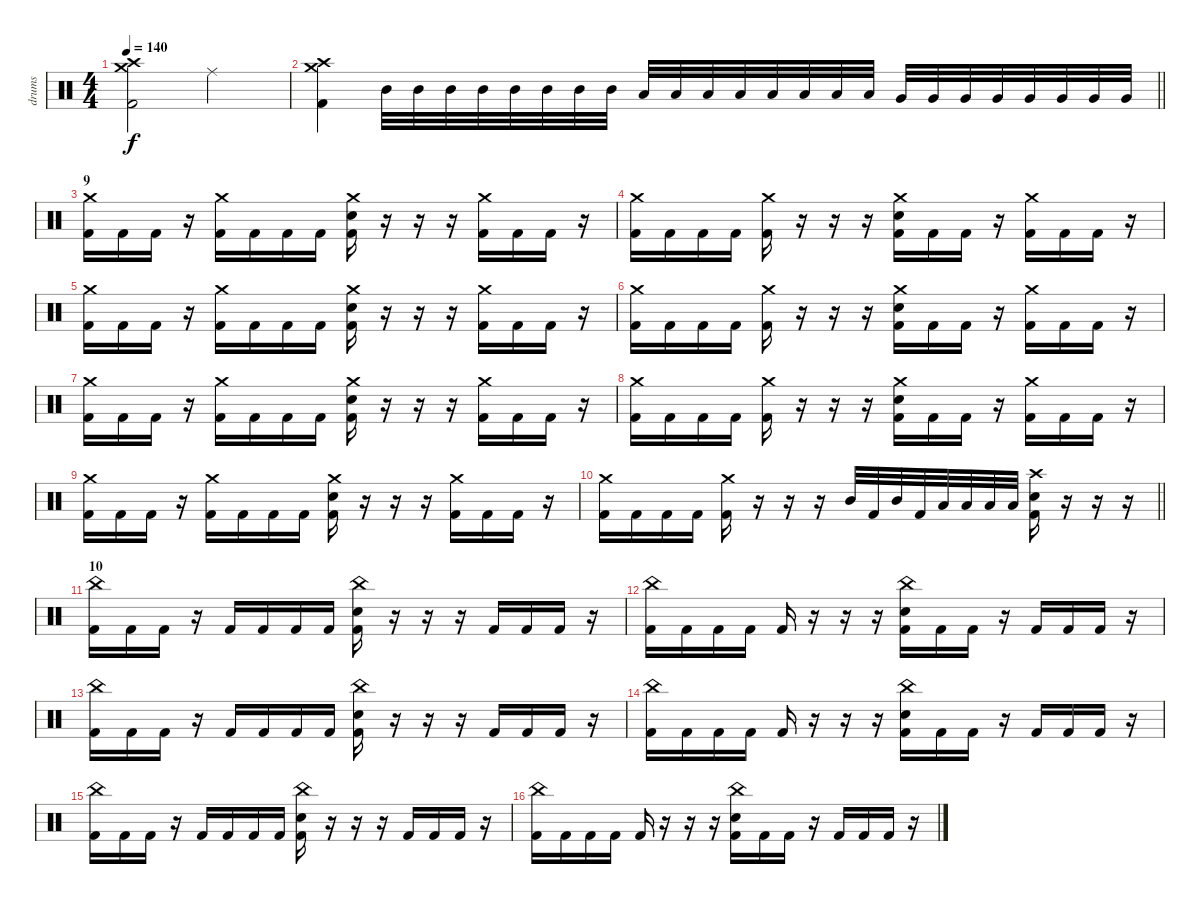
\track ("drums" "drums") {instrument percussion}
\staff {score}
\articulation defaults
\ts (4 4)
\tempo 140
\clef neutral
\ks c
("Crash high (hit)" "Crash medium (hit)" "Kick (hit) 2").2{dy f} "Ride (middle)".2 |
\barLineRight lightlight
("Crash high (hit)" "Crash medium (hit)" "Kick (hit) 2").4 "Mid Tom (hit)".32 "Mid Tom (hit)".32 "Mid Tom (hit)".32 "Mid Tom (hit)".32 "Mid Tom (hit)".32 "Mid Tom (hit)".32 "Mid Tom (hit)".32 "Mid Tom (hit)".32 "Low Tom (hit)".32 "Low Tom (hit)".32 "Low Tom (hit)".32 "Low Tom (hit)".32 "Low Tom (hit)".32 "Low Tom (hit)".32 "Low Tom (hit)".32 "Low Tom (hit)".32 "Very Low Tom (hit)".32 "Very Low Tom (hit)".32 "Very Low Tom (hit)".32 "Very Low Tom (hit)".32 "Very Low Tom (hit)".32 "Very Low Tom (hit)".32 "Very Low Tom (hit)".32 "Very Low Tom (hit)".32 |
\section ("" "9")
("Crash medium (hit)" "Kick (hit) 2").16 "Kick (hit) 2".16 "Kick (hit) 2".16 r.16 ("Crash medium (hit)" "Kick (hit) 2").16 "Kick (hit) 2".16 "Kick (hit) 2".16 "Kick (hit) 2".16 ("Crash medium (hit)" "Electric Snare (hit)" "Kick (hit) 2").16 r.16 r.16 r.16 ("Crash medium (hit)" "Kick (hit) 2").16 "Kick (hit) 2".16 "Kick (hit) 2".16 r.16 |
("Crash medium (hit)" "Kick (hit) 2").16 "Kick (hit) 2".16 "Kick (hit) 2".16 "Kick (hit) 2".16 ("Crash medium (hit)" "Kick (hit) 2").16 r.16 r.16 r.16 ("Crash medium (hit)" "Electric Snare (hit)" "Kick (hit) 2").16 "Kick (hit) 2".16 "Kick (hit) 2".16 r.16 ("Crash medium (hit)" "Kick (hit) 2").16 "Kick (hit) 2".16 "Kick (hit) 2".16 r.16 |
("Crash medium (hit)" "Kick (hit) 2").16 "Kick (hit) 2".16 "Kick (hit) 2".16 r.16 ("Crash medium (hit)" "Kick (hit) 2").16 "Kick (hit) 2".16 "Kick (hit) 2".16 "Kick (hit) 2".16 ("Crash medium (hit)" "Electric Snare (hit)" "Kick (hit) 2").16 r.16 r.16 r.16 ("Crash medium (hit)" "Kick (hit) 2").16 "Kick (hit) 2".16 "Kick (hit) 2".16 r.16 |
("Crash medium (hit)" "Kick (hit) 2").16 "Kick (hit) 2".16 "Kick (hit) 2".16 "Kick (hit) 2".16 ("Crash medium (hit)" "Kick (hit) 2").16 r.16 r.16 r.16 ("Crash medium (hit)" "Electric Snare (hit)" "Kick (hit) 2").16 "Kick (hit) 2".16 "Kick (hit) 2".16 r.16 ("Crash medium (hit)" "Kick (hit) 2").16 "Kick (hit) 2".16 "Kick (hit) 2".16 r.16 |
("Crash medium (hit)" "Kick (hit) 2").16 "Kick (hit) 2".16 "Kick (hit) 2".16 r.16 ("Crash medium (hit)" "Kick (hit) 2").16 "Kick (hit) 2".16 "Kick (hit) 2".16 "Kick (hit) 2".16 ("Crash medium (hit)" "Electric Snare (hit)" "Kick (hit) 2").16 r.16 r.16 r.16 ("Crash medium (hit)" "Kick (hit) 2").16 "Kick (hit) 2".16 "Kick (hit) 2".16 r.16 |
("Crash medium (hit)" "Kick (hit) 2").16 "Kick (hit) 2".16 "Kick (hit) 2".16 "Kick (hit) 2".16 ("Crash medium (hit)" "Kick (hit) 2").16 r.16 r.16 r.16 ("Crash medium (hit)" "Electric Snare (hit)" "Kick (hit) 2").16 "Kick (hit) 2".16 "Kick (hit) 2".16 r.16 ("Crash medium (hit)" "Kick (hit) 2").16 "Kick (hit) 2".16 "Kick (hit) 2".16 r.16 |
("Crash medium (hit)" "Kick (hit) 2").16 "Kick (hit) 2".16 "Kick (hit) 2".16 r.16 ("Crash medium (hit)" "Kick (hit) 2").16 "Kick (hit) 2".16 "Kick (hit) 2".16 "Kick (hit) 2".16 ("Crash medium (hit)" "Electric Snare (hit)" "Kick (hit) 2").16 r.16 r.16 r.16 ("Crash medium (hit)" "Kick (hit) 2").16 "Kick (hit) 2".16 "Kick (hit) 2".16 r.16 |
\barLineRight lightlight
("Crash medium (hit)" "Kick (hit) 2").16 "Kick (hit) 2".16 "Kick (hit) 2".16 "Kick (hit) 2".16 ("Crash medium (hit)" "Kick (hit) 2").16 r.16 r.16 r.16 "Mid Tom (hit)".32 "Kick (hit) 2".32 "Mid Tom (hit)".32 "Kick (hit) 2".32 "Low Tom (hit)".32 "Low Tom (hit)".32 "Low Tom (hit)".32 "Low Tom (hit)".32 ("Crash high (hit)" "Electric Snare (hit)" "Kick (hit) 2").16 r.16 r.16 r.16 |
\section ("" "10")
("China (hit)" "Kick (hit) 2").16 "Kick (hit) 2".16 "Kick (hit) 2".16 r.16 "Kick (hit) 2".16 "Kick (hit) 2".16 "Kick (hit) 2".16 "Kick (hit) 2".16 ("China (hit)" "Electric Snare (hit)" "Kick (hit) 2").16 r.16 r.16 r.16 "Kick (hit) 2".16 "Kick (hit) 2".16 "Kick (hit) 2".16 r.16 |
("China (hit)" "Kick (hit) 2").16 "Kick (hit) 2".16 "Kick (hit) 2".16 "Kick (hit) 2".16 "Kick (hit) 2".16 r.16 r.16 r.16 ("China (hit)" "Electric Snare (hit)" "Kick (hit) 2").16 "Kick (hit) 2".16 "Kick (hit) 2".16 r.16 "Kick (hit) 2".16 "Kick (hit) 2".16 "Kick (hit) 2".16 r.16 |
("China (hit)" "Kick (hit) 2").16 "Kick (hit) 2".16 "Kick (hit) 2".16 r.16 "Kick (hit) 2".16 "Kick (hit) 2".16 "Kick (hit) 2".16 "Kick (hit) 2".16 ("China (hit)" "Electric Snare (hit)" "Kick (hit) 2").16 r.16 r.16 r.16 "Kick (hit) 2".16 "Kick (hit) 2".16 "Kick (hit) 2".16 r.16 |
("China (hit)" "Kick (hit) 2").16 "Kick (hit) 2".16 "Kick (hit) 2".16 "Kick (hit) 2".16 "Kick (hit) 2".16 r.16 r.16 r.16 ("China (hit)" "Electric Snare (hit)" "Kick (hit) 2").16 "Kick (hit) 2".16 "Kick (hit) 2".16 r.16 "Kick (hit) 2".16 "Kick (hit) 2".16 "Kick (hit) 2".16 r.16 |
("China (hit)" "Kick (hit) 2").16 "Kick (hit) 2".16 "Kick (hit) 2".16 r.16 "Kick (hit) 2".16 "Kick (hit) 2".16 "Kick (hit) 2".16 "Kick (hit) 2".16 ("China (hit)" "Electric Snare (hit)" "Kick (hit) 2").16 r.16 r.16 r.16 "Kick (hit) 2".16 "Kick (hit) 2".16 "Kick (hit) 2".16 r.16 |
("China (hit)" "Kick (hit) 2").16 "Kick (hit) 2".16 "Kick (hit) 2".16 "Kick (hit) 2".16 "Kick (hit) 2".16 r.16 r.16 r.16 ("China (hit)" "Electric Snare (hit)" "Kick (hit) 2").16 "Kick (hit) 2".16 "Kick (hit) 2".16 r.16 "Kick (hit) 2".16 "Kick (hit) 2".16 "Kick (hit) 2".16 r.16
